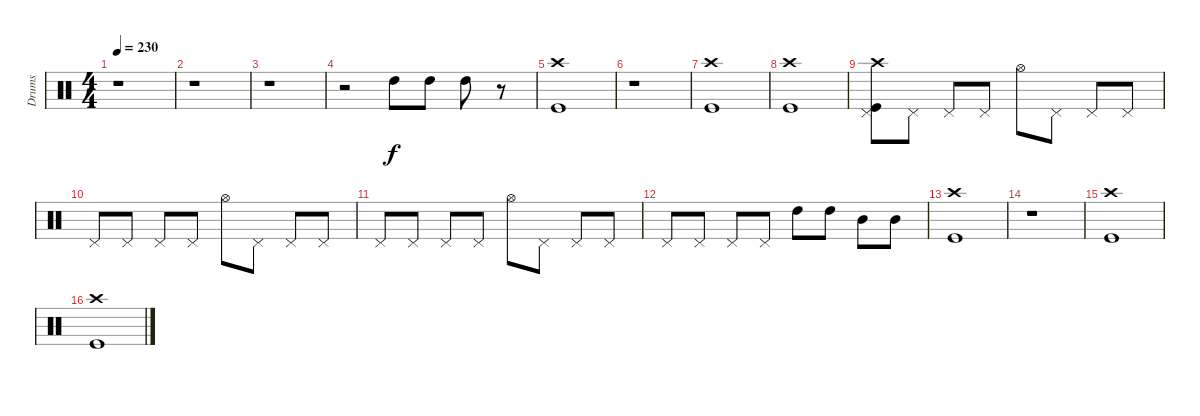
\track ("Drums" "Drums") {instrument percussion}
\staff {score}
\articulation defaults
\ts (4 4)
\tempo 230
\clef neutral
\ks c
r.1{dy f} |
r.1 |
r.1 |
r.2 "High Tom (hit)".8 "High Tom (hit)".8 "High Tom (hit)".8 r.8 |
("Crash high (hit)" "Kick (hit)").1 |
r.1 |
("Crash high (hit)" "Kick (hit)").1 |
("Crash high (hit)" "Kick (hit)").1 |
("Pedal Hi-Hat (hit)" "Crash high (hit)" "Kick (hit)").8 "Pedal Hi-Hat (hit)".8 "Pedal Hi-Hat (hit)".8 "Pedal Hi-Hat (hit)".8 "Hi-Hat (open)".8 "Pedal Hi-Hat (hit)".8 "Pedal Hi-Hat (hit)".8 "Pedal Hi-Hat (hit)".8 |
"Pedal Hi-Hat (hit)".8 "Pedal Hi-Hat (hit)".8 "Pedal Hi-Hat (hit)".8 "Pedal Hi-Hat (hit)".8 "Hi-Hat (open)".8 "Pedal Hi-Hat (hit)".8 "Pedal Hi-Hat (hit)".8 "Pedal Hi-Hat (hit)".8 |
"Pedal Hi-Hat (hit)".8 "Pedal Hi-Hat (hit)".8 "Pedal Hi-Hat (hit)".8 "Pedal Hi-Hat (hit)".8 "Hi-Hat (open)".8 "Pedal Hi-Hat (hit)".8 "Pedal Hi-Hat (hit)".8 "Pedal Hi-Hat (hit)".8 |
"Pedal Hi-Hat (hit)".8 "Pedal Hi-Hat (hit)".8 "Pedal Hi-Hat (hit)".8 "Pedal Hi-Hat (hit)".8 "High Tom (hit)".8 "High Tom (hit)".8 "Mid Tom (hit)".8 "Mid Tom (hit)".8 |
("Crash high (hit)" "Kick (hit)").1 |
r.1 |
("Crash high (hit)" "Kick (hit)").1 |
("Crash high (hit)" "Kick (hit)").1
